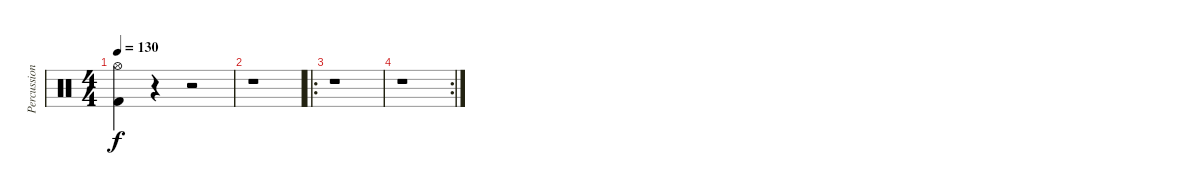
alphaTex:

\track ("Percussion" "Percussion") {solo instrument percussion}
\staff {score}
\articulation defaults
\ts (4 4)
\tempo 130
\clef neutral
\ks c
("Hi-Hat (open)" "Kick (hit) 2").4{dy f} r.4 r.2 |
r.1 |
\ro
r.1 |
\rc 2
r.1
